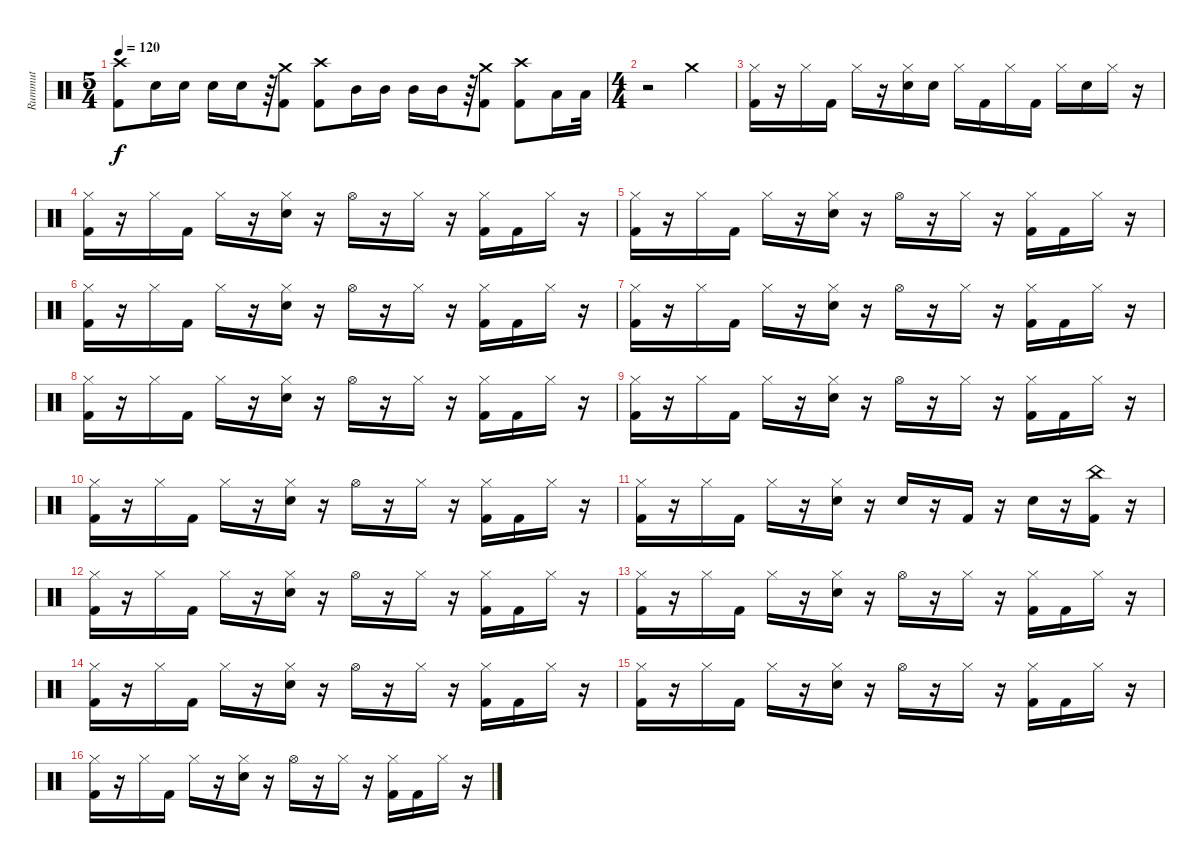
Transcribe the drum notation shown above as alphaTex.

\track ("Rummut" "Rummut") {instrument percussion}
\staff {score}
\articulation defaults
\ts (5 4)
\tempo 120
\clef neutral
\ks c
("Crash high (hit)" "Kick (hit) 2").8{dy f} "Snare (hit) 2".16 "Snare (hit) 2".16 "Snare (hit) 2".16 "Snare (hit) 2".16 r.64 ("Crash medium (hit)" "Kick (hit) 2").8 ("Crash high (hit)" "Kick (hit) 2").8 "Mid Tom (hit)".16 "Mid Tom (hit)".16 "Mid Tom (hit)".16 "Mid Tom (hit)".16 r.64 ("Crash medium (hit)" "Kick (hit) 2").8 ("Crash high (hit)" "Kick (hit) 2").8 "Low Tom (hit)".16 "Low Tom (hit)".32 |
\ts (4 4)
r.2 "Crash medium (hit)".2 |
("Hi-Hat (closed)" "Kick (hit) 2").16 r.16 "Hi-Hat (closed)".16 "Kick (hit) 2".16 "Hi-Hat (closed)".16 r.16 ("Hi-Hat (closed)" "Snare (hit) 2").16 "Snare (hit) 2".16 "Hi-Hat (closed)".16 "Kick (hit) 2".16 "Hi-Hat (closed)".16 "Kick (hit) 2".16 "Hi-Hat (closed)".16 "Snare (hit) 2".16 "Hi-Hat (closed)".16 r.16 |
("Hi-Hat (closed)" "Kick (hit) 2").16 r.16 "Hi-Hat (closed)".16 "Kick (hit) 2".16 "Hi-Hat (closed)".16 r.16 ("Hi-Hat (closed)" "Snare (hit) 2").16 r.16 "Hi-Hat (open)".16 r.16 "Hi-Hat (closed)".16 r.16 ("Hi-Hat (closed)" "Kick (hit) 2").16 "Kick (hit) 2".16 "Hi-Hat (closed)".16 r.16 |
("Hi-Hat (closed)" "Kick (hit) 2").16 r.16 "Hi-Hat (closed)".16 "Kick (hit) 2".16 "Hi-Hat (closed)".16 r.16 ("Hi-Hat (closed)" "Snare (hit) 2").16 r.16 "Hi-Hat (open)".16 r.16 "Hi-Hat (closed)".16 r.16 ("Hi-Hat (closed)" "Kick (hit) 2").16 "Kick (hit) 2".16 "Hi-Hat (closed)".16 r.16 |
("Hi-Hat (closed)" "Kick (hit) 2").16 r.16 "Hi-Hat (closed)".16 "Kick (hit) 2".16 "Hi-Hat (closed)".16 r.16 ("Hi-Hat (closed)" "Snare (hit) 2").16 r.16 "Hi-Hat (open)".16 r.16 "Hi-Hat (closed)".16 r.16 ("Hi-Hat (closed)" "Kick (hit) 2").16 "Kick (hit) 2".16 "Hi-Hat (closed)".16 r.16 |
("Hi-Hat (closed)" "Kick (hit) 2").16 r.16 "Hi-Hat (closed)".16 "Kick (hit) 2".16 "Hi-Hat (closed)".16 r.16 ("Hi-Hat (closed)" "Snare (hit) 2").16 r.16 "Hi-Hat (open)".16 r.16 "Hi-Hat (closed)".16 r.16 ("Hi-Hat (closed)" "Kick (hit) 2").16 "Kick (hit) 2".16 "Hi-Hat (closed)".16 r.16 |
("Hi-Hat (closed)" "Kick (hit) 2").16 r.16 "Hi-Hat (closed)".16 "Kick (hit) 2".16 "Hi-Hat (closed)".16 r.16 ("Hi-Hat (closed)" "Snare (hit) 2").16 r.16 "Hi-Hat (open)".16 r.16 "Hi-Hat (closed)".16 r.16 ("Hi-Hat (closed)" "Kick (hit) 2").16 "Kick (hit) 2".16 "Hi-Hat (closed)".16 r.16 |
("Hi-Hat (closed)" "Kick (hit) 2").16 r.16 "Hi-Hat (closed)".16 "Kick (hit) 2".16 "Hi-Hat (closed)".16 r.16 ("Hi-Hat (closed)" "Snare (hit) 2").16 r.16 "Hi-Hat (open)".16 r.16 "Hi-Hat (closed)".16 r.16 ("Hi-Hat (closed)" "Kick (hit) 2").16 "Kick (hit) 2".16 "Hi-Hat (closed)".16 r.16 |
("Hi-Hat (closed)" "Kick (hit) 2").16 r.16 "Hi-Hat (closed)".16 "Kick (hit) 2".16 "Hi-Hat (closed)".16 r.16 ("Hi-Hat (closed)" "Snare (hit) 2").16 r.16 "Hi-Hat (open)".16 r.16 "Hi-Hat (closed)".16 r.16 ("Hi-Hat (closed)" "Kick (hit) 2").16 "Kick (hit) 2".16 "Hi-Hat (closed)".16 r.16 |
("Hi-Hat (closed)" "Kick (hit) 2").16 r.16 "Hi-Hat (closed)".16 "Kick (hit) 2".16 "Hi-Hat (closed)".16 r.16 ("Hi-Hat (closed)" "Snare (hit) 2").16 r.16 "Snare (hit) 2".16 r.16 "Kick (hit) 2".16 r.16 "Snare (hit) 2".16 r.16 ("China (hit)" "Kick (hit) 2").16 r.16 |
("Hi-Hat (closed)" "Kick (hit) 2").16 r.16 "Hi-Hat (closed)".16 "Kick (hit) 2".16 "Hi-Hat (closed)".16 r.16 ("Hi-Hat (closed)" "Snare (hit) 2").16 r.16 "Hi-Hat (open)".16 r.16 "Hi-Hat (closed)".16 r.16 ("Hi-Hat (closed)" "Kick (hit) 2").16 "Kick (hit) 2".16 "Hi-Hat (closed)".16 r.16 |
("Hi-Hat (closed)" "Kick (hit) 2").16 r.16 "Hi-Hat (closed)".16 "Kick (hit) 2".16 "Hi-Hat (closed)".16 r.16 ("Hi-Hat (closed)" "Snare (hit) 2").16 r.16 "Hi-Hat (open)".16 r.16 "Hi-Hat (closed)".16 r.16 ("Hi-Hat (closed)" "Kick (hit) 2").16 "Kick (hit) 2".16 "Hi-Hat (closed)".16 r.16 |
("Hi-Hat (closed)" "Kick (hit) 2").16 r.16 "Hi-Hat (closed)".16 "Kick (hit) 2".16 "Hi-Hat (closed)".16 r.16 ("Hi-Hat (closed)" "Snare (hit) 2").16 r.16 "Hi-Hat (open)".16 r.16 "Hi-Hat (closed)".16 r.16 ("Hi-Hat (closed)" "Kick (hit) 2").16 "Kick (hit) 2".16 "Hi-Hat (closed)".16 r.16 |
("Hi-Hat (closed)" "Kick (hit) 2").16 r.16 "Hi-Hat (closed)".16 "Kick (hit) 2".16 "Hi-Hat (closed)".16 r.16 ("Hi-Hat (closed)" "Snare (hit) 2").16 r.16 "Hi-Hat (open)".16 r.16 "Hi-Hat (closed)".16 r.16 ("Hi-Hat (closed)" "Kick (hit) 2").16 "Kick (hit) 2".16 "Hi-Hat (closed)".16 r.16 |
("Hi-Hat (closed)" "Kick (hit) 2").16 r.16 "Hi-Hat (closed)".16 "Kick (hit) 2".16 "Hi-Hat (closed)".16 r.16 ("Hi-Hat (closed)" "Snare (hit) 2").16 r.16 "Hi-Hat (open)".16 r.16 "Hi-Hat (closed)".16 r.16 ("Hi-Hat (closed)" "Kick (hit) 2").16 "Kick (hit) 2".16 "Hi-Hat (closed)".16 r.16
